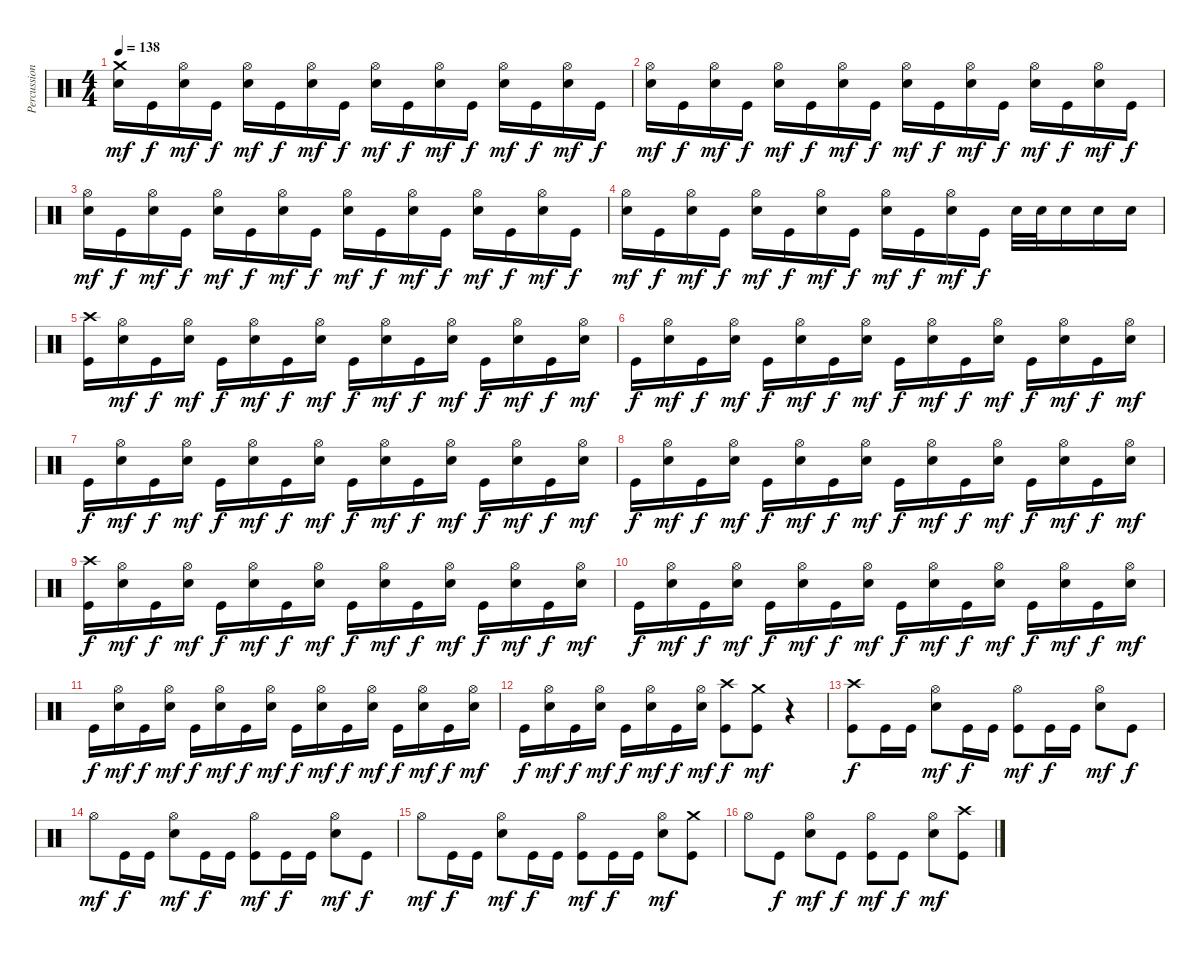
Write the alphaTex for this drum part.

\track ("Percussions" "Percussion") {instrument percussion}
\staff {score}
\articulation defaults
\ts (4 4)
\tempo 138
\clef neutral
\ks c
("Electric Snare (hit)" "Crash medium (hit)").16{dy mf} "Kick (hit)".16{dy f} ("Electric Snare (hit)" "Hi-Hat (open)").16{dy mf} "Kick (hit)".16{dy f} ("Electric Snare (hit)" "Hi-Hat (open)").16{dy mf} "Kick (hit)".16{dy f} ("Electric Snare (hit)" "Hi-Hat (open)").16{dy mf} "Kick (hit)".16{dy f} ("Electric Snare (hit)" "Hi-Hat (open)").16{dy mf} "Kick (hit)".16{dy f} ("Electric Snare (hit)" "Hi-Hat (open)").16{dy mf} "Kick (hit)".16{dy f} ("Electric Snare (hit)" "Hi-Hat (open)").16{dy mf} "Kick (hit)".16{dy f} ("Electric Snare (hit)" "Hi-Hat (open)").16{dy mf} "Kick (hit)".16{dy f} |
("Electric Snare (hit)" "Hi-Hat (open)").16{dy mf} "Kick (hit)".16{dy f} ("Electric Snare (hit)" "Hi-Hat (open)").16{dy mf} "Kick (hit)".16{dy f} ("Electric Snare (hit)" "Hi-Hat (open)").16{dy mf} "Kick (hit)".16{dy f} ("Electric Snare (hit)" "Hi-Hat (open)").16{dy mf} "Kick (hit)".16{dy f} ("Electric Snare (hit)" "Hi-Hat (open)").16{dy mf} "Kick (hit)".16{dy f} ("Electric Snare (hit)" "Hi-Hat (open)").16{dy mf} "Kick (hit)".16{dy f} ("Electric Snare (hit)" "Hi-Hat (open)").16{dy mf} "Kick (hit)".16{dy f} ("Electric Snare (hit)" "Hi-Hat (open)").16{dy mf} "Kick (hit)".16{dy f} |
("Electric Snare (hit)" "Hi-Hat (open)").16{dy mf} "Kick (hit)".16{dy f} ("Electric Snare (hit)" "Hi-Hat (open)").16{dy mf} "Kick (hit)".16{dy f} ("Electric Snare (hit)" "Hi-Hat (open)").16{dy mf} "Kick (hit)".16{dy f} ("Electric Snare (hit)" "Hi-Hat (open)").16{dy mf} "Kick (hit)".16{dy f} ("Electric Snare (hit)" "Hi-Hat (open)").16{dy mf} "Kick (hit)".16{dy f} ("Electric Snare (hit)" "Hi-Hat (open)").16{dy mf} "Kick (hit)".16{dy f} ("Electric Snare (hit)" "Hi-Hat (open)").16{dy mf} "Kick (hit)".16{dy f} ("Electric Snare (hit)" "Hi-Hat (open)").16{dy mf} "Kick (hit)".16{dy f} |
("Electric Snare (hit)" "Hi-Hat (open)").16{dy mf} "Kick (hit)".16{dy f} ("Electric Snare (hit)" "Hi-Hat (open)").16{dy mf} "Kick (hit)".16{dy f} ("Electric Snare (hit)" "Hi-Hat (open)").16{dy mf} "Kick (hit)".16{dy f} ("Electric Snare (hit)" "Hi-Hat (open)").16{dy mf} "Kick (hit)".16{dy f} ("Electric Snare (hit)" "Hi-Hat (open)").16{dy mf} "Kick (hit)".16{dy f} ("Electric Snare (hit)" "Hi-Hat (open)").16{dy mf} "Kick (hit)".16{dy f} "Electric Snare (hit)".32 "Electric Snare (hit)".32 "Electric Snare (hit)".16 "Electric Snare (hit)".16 "Electric Snare (hit)".16 |
("Kick (hit)" "Crash high (hit)").16 ("Electric Snare (hit)" "Hi-Hat (open)").16{dy mf} "Kick (hit)".16{dy f} ("Electric Snare (hit)" "Hi-Hat (open)").16{dy mf} "Kick (hit)".16{dy f} ("Electric Snare (hit)" "Hi-Hat (open)").16{dy mf} "Kick (hit)".16{dy f} ("Electric Snare (hit)" "Hi-Hat (open)").16{dy mf} "Kick (hit)".16{dy f} ("Electric Snare (hit)" "Hi-Hat (open)").16{dy mf} "Kick (hit)".16{dy f} ("Electric Snare (hit)" "Hi-Hat (open)").16{dy mf} "Kick (hit)".16{dy f} ("Electric Snare (hit)" "Hi-Hat (open)").16{dy mf} "Kick (hit)".16{dy f} ("Electric Snare (hit)" "Hi-Hat (open)").16{dy mf} |
"Kick (hit)".16{dy f} ("Electric Snare (hit)" "Hi-Hat (open)").16{dy mf} "Kick (hit)".16{dy f} ("Electric Snare (hit)" "Hi-Hat (open)").16{dy mf} "Kick (hit)".16{dy f} ("Electric Snare (hit)" "Hi-Hat (open)").16{dy mf} "Kick (hit)".16{dy f} ("Electric Snare (hit)" "Hi-Hat (open)").16{dy mf} "Kick (hit)".16{dy f} ("Electric Snare (hit)" "Hi-Hat (open)").16{dy mf} "Kick (hit)".16{dy f} ("Electric Snare (hit)" "Hi-Hat (open)").16{dy mf} "Kick (hit)".16{dy f} ("Electric Snare (hit)" "Hi-Hat (open)").16{dy mf} "Kick (hit)".16{dy f} ("Electric Snare (hit)" "Hi-Hat (open)").16{dy mf} |
"Kick (hit)".16{dy f} ("Electric Snare (hit)" "Hi-Hat (open)").16{dy mf} "Kick (hit)".16{dy f} ("Electric Snare (hit)" "Hi-Hat (open)").16{dy mf} "Kick (hit)".16{dy f} ("Electric Snare (hit)" "Hi-Hat (open)").16{dy mf} "Kick (hit)".16{dy f} ("Electric Snare (hit)" "Hi-Hat (open)").16{dy mf} "Kick (hit)".16{dy f} ("Electric Snare (hit)" "Hi-Hat (open)").16{dy mf} "Kick (hit)".16{dy f} ("Electric Snare (hit)" "Hi-Hat (open)").16{dy mf} "Kick (hit)".16{dy f} ("Electric Snare (hit)" "Hi-Hat (open)").16{dy mf} "Kick (hit)".16{dy f} ("Electric Snare (hit)" "Hi-Hat (open)").16{dy mf} |
"Kick (hit)".16{dy f} ("Electric Snare (hit)" "Hi-Hat (open)").16{dy mf} "Kick (hit)".16{dy f} ("Electric Snare (hit)" "Hi-Hat (open)").16{dy mf} "Kick (hit)".16{dy f} ("Electric Snare (hit)" "Hi-Hat (open)").16{dy mf} "Kick (hit)".16{dy f} ("Electric Snare (hit)" "Hi-Hat (open)").16{dy mf} "Kick (hit)".16{dy f} ("Electric Snare (hit)" "Hi-Hat (open)").16{dy mf} "Kick (hit)".16{dy f} ("Electric Snare (hit)" "Hi-Hat (open)").16{dy mf} "Kick (hit)".16{dy f} ("Electric Snare (hit)" "Hi-Hat (open)").16{dy mf} "Kick (hit)".16{dy f} ("Electric Snare (hit)" "Hi-Hat (open)").16{dy mf} |
("Kick (hit)" "Crash high (hit)").16{dy f} ("Electric Snare (hit)" "Hi-Hat (open)").16{dy mf} "Kick (hit)".16{dy f} ("Electric Snare (hit)" "Hi-Hat (open)").16{dy mf} "Kick (hit)".16{dy f} ("Electric Snare (hit)" "Hi-Hat (open)").16{dy mf} "Kick (hit)".16{dy f} ("Electric Snare (hit)" "Hi-Hat (open)").16{dy mf} "Kick (hit)".16{dy f} ("Electric Snare (hit)" "Hi-Hat (open)").16{dy mf} "Kick (hit)".16{dy f} ("Electric Snare (hit)" "Hi-Hat (open)").16{dy mf} "Kick (hit)".16{dy f} ("Electric Snare (hit)" "Hi-Hat (open)").16{dy mf} "Kick (hit)".16{dy f} ("Electric Snare (hit)" "Hi-Hat (open)").16{dy mf} |
"Kick (hit)".16{dy f} ("Electric Snare (hit)" "Hi-Hat (open)").16{dy mf} "Kick (hit)".16{dy f} ("Electric Snare (hit)" "Hi-Hat (open)").16{dy mf} "Kick (hit)".16{dy f} ("Electric Snare (hit)" "Hi-Hat (open)").16{dy mf} "Kick (hit)".16{dy f} ("Electric Snare (hit)" "Hi-Hat (open)").16{dy mf} "Kick (hit)".16{dy f} ("Electric Snare (hit)" "Hi-Hat (open)").16{dy mf} "Kick (hit)".16{dy f} ("Electric Snare (hit)" "Hi-Hat (open)").16{dy mf} "Kick (hit)".16{dy f} ("Electric Snare (hit)" "Hi-Hat (open)").16{dy mf} "Kick (hit)".16{dy f} ("Electric Snare (hit)" "Hi-Hat (open)").16{dy mf} |
"Kick (hit)".16{dy f} ("Electric Snare (hit)" "Hi-Hat (open)").16{dy mf} "Kick (hit)".16{dy f} ("Electric Snare (hit)" "Hi-Hat (open)").16{dy mf} "Kick (hit)".16{dy f} ("Electric Snare (hit)" "Hi-Hat (open)").16{dy mf} "Kick (hit)".16{dy f} ("Electric Snare (hit)" "Hi-Hat (open)").16{dy mf} "Kick (hit)".16{dy f} ("Electric Snare (hit)" "Hi-Hat (open)").16{dy mf} "Kick (hit)".16{dy f} ("Electric Snare (hit)" "Hi-Hat (open)").16{dy mf} "Kick (hit)".16{dy f} ("Electric Snare (hit)" "Hi-Hat (open)").16{dy mf} "Kick (hit)".16{dy f} ("Electric Snare (hit)" "Hi-Hat (open)").16{dy mf} |
"Kick (hit)".16{dy f} ("Electric Snare (hit)" "Hi-Hat (open)").16{dy mf} "Kick (hit)".16{dy f} ("Electric Snare (hit)" "Hi-Hat (open)").16{dy mf} "Kick (hit)".16{dy f} ("Electric Snare (hit)" "Hi-Hat (open)").16{dy mf} "Kick (hit)".16{dy f} ("Electric Snare (hit)" "Hi-Hat (open)").16{dy mf} ("Kick (hit)" "Crash high (hit)").8{dy f} ("Kick (hit)" "Crash medium (hit)").8{dy mf} r.4 |
("Kick (hit)" "Crash high (hit)").8{dy f} "Kick (hit)".16 "Kick (hit)".16 ("Electric Snare (hit)" "Hi-Hat (open)").8{dy mf} "Kick (hit)".16{dy f} "Kick (hit)".16 ("Kick (hit)" "Hi-Hat (open)").8{dy mf} "Kick (hit)".16{dy f} "Kick (hit)".16 ("Electric Snare (hit)" "Hi-Hat (open)").8{dy mf} "Kick (hit)".8{dy f} |
"Hi-Hat (open)".8{dy mf} "Kick (hit)".16{dy f} "Kick (hit)".16 ("Electric Snare (hit)" "Hi-Hat (open)").8{dy mf} "Kick (hit)".16{dy f} "Kick (hit)".16 ("Kick (hit)" "Hi-Hat (open)").8{dy mf} "Kick (hit)".16{dy f} "Kick (hit)".16 ("Electric Snare (hit)" "Hi-Hat (open)").8{dy mf} "Kick (hit)".8{dy f} |
"Hi-Hat (open)".8{dy mf} "Kick (hit)".16{dy f} "Kick (hit)".16 ("Electric Snare (hit)" "Hi-Hat (open)").8{dy mf} "Kick (hit)".16{dy f} "Kick (hit)".16 ("Kick (hit)" "Hi-Hat (open)").8{dy mf} "Kick (hit)".16{dy f} "Kick (hit)".16 ("Electric Snare (hit)" "Hi-Hat (open)").8{dy mf} ("Kick (hit)" "Crash medium (hit)").8 |
"Hi-Hat (open)".8 "Kick (hit)".8{dy f} ("Electric Snare (hit)" "Hi-Hat (open)").8{dy mf} "Kick (hit)".8{dy f} ("Kick (hit)" "Hi-Hat (open)").8{dy mf} "Kick (hit)".8{dy f} ("Electric Snare (hit)" "Hi-Hat (open)").8{dy mf} ("Kick (hit)" "Crash high (hit)").8
